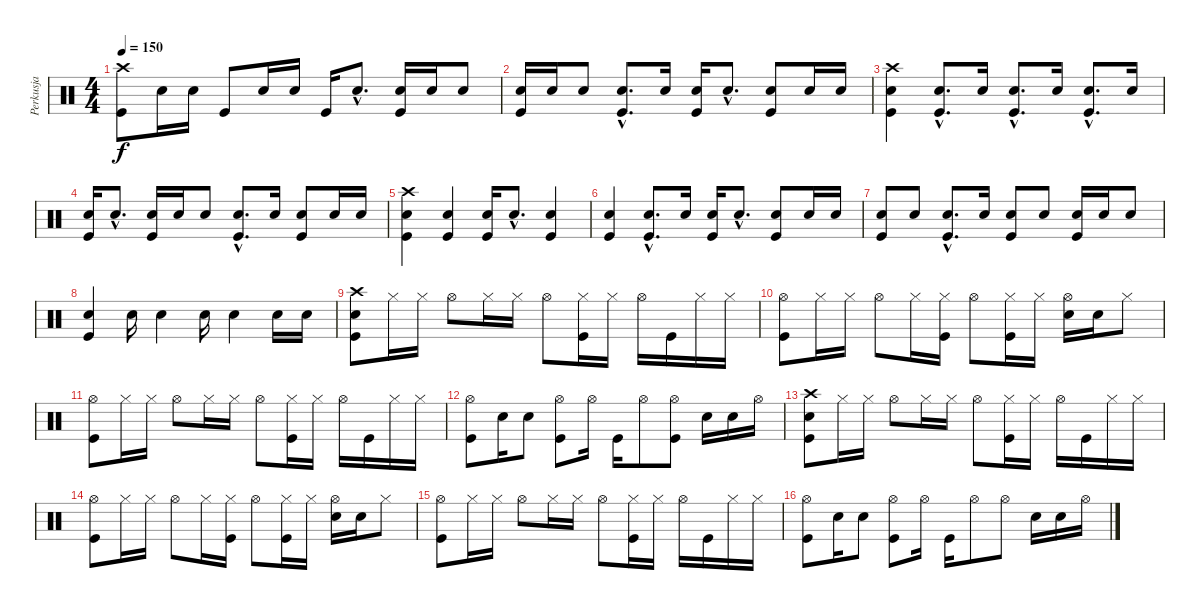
\track ("Perkusja" "Perkusja") {instrument percussion}
\staff {score}
\articulation defaults
\ts (4 4)
\tempo 150
\clef neutral
\ks c
("Crash high (hit)" "Kick (hit)").8{dy f} "Snare (hit) 2".16 "Snare (hit) 2".16 "Kick (hit)".8 "Snare (hit) 2".16 "Snare (hit) 2".16 "Kick (hit)".16 "Snare (hit) 2"{hac}.8{d} ("Snare (hit) 2" "Kick (hit)").16 "Snare (hit) 2".16 "Snare (hit) 2".8 |
("Snare (hit) 2" "Kick (hit)").16 "Snare (hit) 2".16 "Snare (hit) 2".8 ("Snare (hit) 2"{hac} "Kick (hit)"{hac}).8{d} "Snare (hit) 2".16 ("Snare (hit) 2" "Kick (hit)").16 "Snare (hit) 2"{hac}.8{d} ("Snare (hit) 2" "Kick (hit)").8 "Snare (hit) 2".16 "Snare (hit) 2".16 |
("Crash high (hit)" "Snare (hit) 2" "Kick (hit)").4 ("Snare (hit) 2"{hac} "Kick (hit)"{hac}).8{d} "Snare (hit) 2".16 ("Snare (hit) 2"{hac} "Kick (hit)"{hac}).8{d} "Snare (hit) 2".16 ("Snare (hit) 2"{hac} "Kick (hit)"{hac}).8{d} "Snare (hit) 2".16 |
("Snare (hit) 2" "Kick (hit)").16 "Snare (hit) 2"{hac}.8{d} ("Snare (hit) 2" "Kick (hit)").16 "Snare (hit) 2".16 "Snare (hit) 2".8 ("Snare (hit) 2"{hac} "Kick (hit)"{hac}).8{d} "Snare (hit) 2".16 ("Snare (hit) 2" "Kick (hit)").8 "Snare (hit) 2".16 "Snare (hit) 2".16 |
("Crash high (hit)" "Snare (hit) 2" "Kick (hit)").4 ("Snare (hit) 2" "Kick (hit)").4 ("Snare (hit) 2" "Kick (hit)").16 "Snare (hit) 2"{hac}.8{d} ("Snare (hit) 2" "Kick (hit)").4 |
("Snare (hit) 2" "Kick (hit)").4 ("Snare (hit) 2"{hac} "Kick (hit)"{hac}).8{d} "Snare (hit) 2".16 ("Snare (hit) 2" "Kick (hit)").16 "Snare (hit) 2"{hac}.8{d} ("Snare (hit) 2" "Kick (hit)").8 "Snare (hit) 2".16 "Snare (hit) 2".16 |
("Snare (hit) 2" "Kick (hit)").8 "Snare (hit) 2".8 ("Snare (hit) 2"{hac} "Kick (hit)"{hac}).8{d} "Snare (hit) 2".16 ("Snare (hit) 2" "Kick (hit)").8 "Snare (hit) 2".8 ("Snare (hit) 2" "Kick (hit)").16 "Snare (hit) 2".16 "Snare (hit) 2".8 |
("Snare (hit) 2" "Kick (hit)").4 "Snare (hit) 2".16 "Snare (hit) 2".4 "Snare (hit) 2".16 "Snare (hit) 2".4 "Snare (hit) 2".16 "Snare (hit) 2".16 |
("Crash high (hit)" "Snare (hit) 2" "Kick (hit)").8 "Hi-Hat (closed)".16 "Hi-Hat (closed)".16 "Hi-Hat (open)".8 "Hi-Hat (closed)".16 "Hi-Hat (closed)".16 "Hi-Hat (open)".8 ("Hi-Hat (closed)" "Kick (hit)").16 "Hi-Hat (closed)".16 "Hi-Hat (open)".16 "Kick (hit)".16 "Hi-Hat (closed)".16 "Hi-Hat (closed)".16 |
("Hi-Hat (open)" "Kick (hit)").8 "Hi-Hat (closed)".16 "Hi-Hat (closed)".16 "Hi-Hat (open)".8 "Hi-Hat (closed)".16 ("Hi-Hat (closed)" "Kick (hit)").16 "Hi-Hat (open)".8 ("Hi-Hat (closed)" "Kick (hit)").16 "Hi-Hat (closed)".16 ("Hi-Hat (open)" "Snare (hit) 2").16 "Snare (hit) 2".16 "Hi-Hat (closed)".8 |
("Hi-Hat (open)" "Kick (hit)").8 "Hi-Hat (closed)".16 "Hi-Hat (closed)".16 "Hi-Hat (open)".8 "Hi-Hat (closed)".16 "Hi-Hat (closed)".16 "Hi-Hat (open)".8 ("Hi-Hat (closed)" "Kick (hit)").16 "Hi-Hat (closed)".16 "Hi-Hat (open)".16 "Kick (hit)".16 "Hi-Hat (closed)".16 "Hi-Hat (closed)".16 |
("Hi-Hat (open)" "Kick (hit)").8 "Snare (hit) 2".16 "Snare (hit) 2".8 ("Hi-Hat (open)" "Kick (hit)").8 "Hi-Hat (open)".16 "Kick (hit)".16 "Hi-Hat (open)".8 ("Hi-Hat (open)" "Kick (hit)").8 "Snare (hit) 2".16 "Snare (hit) 2".16 "Hi-Hat (open)".16 |
("Crash high (hit)" "Snare (hit) 2" "Kick (hit)").8 "Hi-Hat (closed)".16 "Hi-Hat (closed)".16 "Hi-Hat (open)".8 "Hi-Hat (closed)".16 "Hi-Hat (closed)".16 "Hi-Hat (open)".8 ("Hi-Hat (closed)" "Kick (hit)").16 "Hi-Hat (closed)".16 "Hi-Hat (open)".16 "Kick (hit)".16 "Hi-Hat (closed)".16 "Hi-Hat (closed)".16 |
("Hi-Hat (open)" "Kick (hit)").8 "Hi-Hat (closed)".16 "Hi-Hat (closed)".16 "Hi-Hat (open)".8 "Hi-Hat (closed)".16 ("Hi-Hat (closed)" "Kick (hit)").16 "Hi-Hat (open)".8 ("Hi-Hat (closed)" "Kick (hit)").16 "Hi-Hat (closed)".16 ("Hi-Hat (open)" "Snare (hit) 2").16 "Snare (hit) 2".16 "Hi-Hat (closed)".8 |
("Hi-Hat (open)" "Kick (hit)").8 "Hi-Hat (closed)".16 "Hi-Hat (closed)".16 "Hi-Hat (open)".8 "Hi-Hat (closed)".16 "Hi-Hat (closed)".16 "Hi-Hat (open)".8 ("Hi-Hat (closed)" "Kick (hit)").16 "Hi-Hat (closed)".16 "Hi-Hat (open)".16 "Kick (hit)".16 "Hi-Hat (closed)".16 "Hi-Hat (closed)".16 |
("Hi-Hat (open)" "Kick (hit)").8 "Snare (hit) 2".16 "Snare (hit) 2".8 ("Hi-Hat (open)" "Kick (hit)").8 "Hi-Hat (open)".16 "Kick (hit)".16 "Hi-Hat (open)".8 "Hi-Hat (open)".8 "Snare (hit) 2".16 "Snare (hit) 2".16 "Hi-Hat (open)".16
